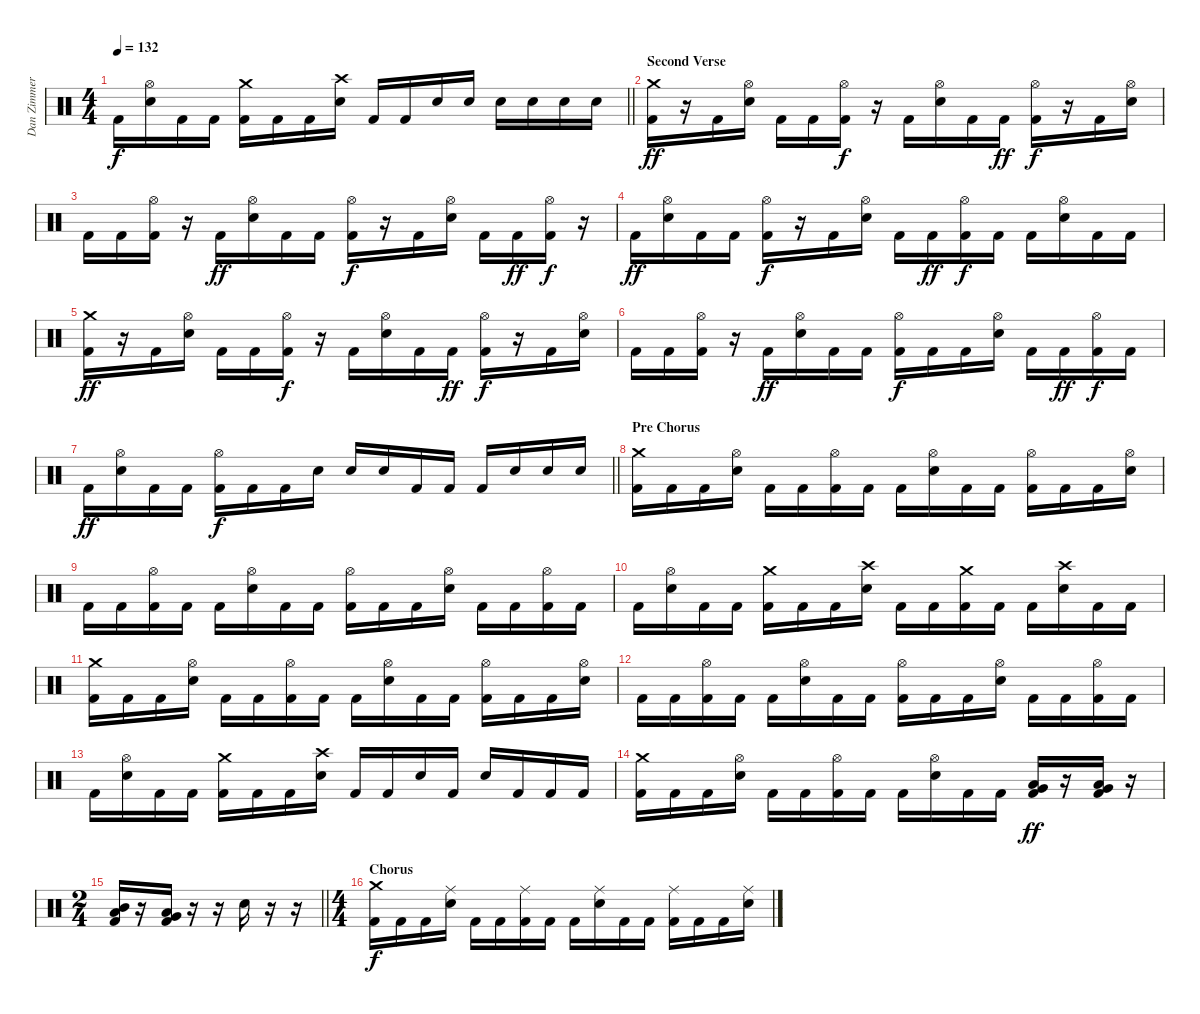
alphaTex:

\track ("Dan Zimmermann" "Dan Zimmer") {instrument percussion}
\staff {score}
\articulation defaults
\ts (4 4)
\tempo 132
\clef neutral
\barLineRight lightlight
\ks c "Kick (hit) 2".16{dy f}
("Hi-Hat (open)" "Electric Snare (hit)").16 "Kick (hit) 2".16 "Kick (hit) 2".16 ("Crash medium (hit)" "Kick (hit) 2").16 "Kick (hit) 2".16 "Kick (hit) 2".16 ("Crash high (hit)" "Electric Snare (hit)").16 "Kick (hit) 2".16 "Kick (hit) 2".16 "Electric Snare (hit)".16 "Electric Snare (hit)".16 "Electric Snare (hit)".16 "Electric Snare (hit)".16 "Electric Snare (hit)".16 "Electric Snare (hit)".16 |
\section ("" "Second Verse")
("Crash medium (hit)" "Kick (hit) 2").16{dy ff} r.16 "Kick (hit) 2".16 ("Hi-Hat (open)" "Electric Snare (hit)").16 "Kick (hit) 2".16 "Kick (hit) 2".16 ("Hi-Hat (open)" "Kick (hit) 2").16{dy f} r.16 "Kick (hit) 2".16 ("Hi-Hat (open)" "Electric Snare (hit)").16 "Kick (hit) 2".16 "Kick (hit) 2".16{dy ff} ("Hi-Hat (open)" "Kick (hit) 2").16{dy f} r.16 "Kick (hit) 2".16 ("Hi-Hat (open)" "Electric Snare (hit)").16 |
"Kick (hit) 2".16 "Kick (hit) 2".16 ("Hi-Hat (open)" "Kick (hit) 2").16 r.16 "Kick (hit) 2".16{dy ff} ("Hi-Hat (open)" "Electric Snare (hit)").16 "Kick (hit) 2".16 "Kick (hit) 2".16 ("Hi-Hat (open)" "Kick (hit) 2").16{dy f} r.16 "Kick (hit) 2".16 ("Hi-Hat (open)" "Electric Snare (hit)").16 "Kick (hit) 2".16 "Kick (hit) 2".16{dy ff} ("Hi-Hat (open)" "Kick (hit) 2").16{dy f} r.16 |
"Kick (hit) 2".16{dy ff} ("Hi-Hat (open)" "Electric Snare (hit)").16 "Kick (hit) 2".16 "Kick (hit) 2".16 ("Hi-Hat (open)" "Kick (hit) 2").16{dy f} r.16 "Kick (hit) 2".16 ("Hi-Hat (open)" "Electric Snare (hit)").16 "Kick (hit) 2".16 "Kick (hit) 2".16{dy ff} ("Hi-Hat (open)" "Kick (hit) 2").16{dy f} "Kick (hit) 2".16 "Kick (hit) 2".16 ("Hi-Hat (open)" "Electric Snare (hit)").16 "Kick (hit) 2".16 "Kick (hit) 2".16 |
("Crash medium (hit)" "Kick (hit) 2").16{dy ff} r.16 "Kick (hit) 2".16 ("Hi-Hat (open)" "Electric Snare (hit)").16 "Kick (hit) 2".16 "Kick (hit) 2".16 ("Hi-Hat (open)" "Kick (hit) 2").16{dy f} r.16 "Kick (hit) 2".16 ("Hi-Hat (open)" "Electric Snare (hit)").16 "Kick (hit) 2".16 "Kick (hit) 2".16{dy ff} ("Hi-Hat (open)" "Kick (hit) 2").16{dy f} r.16 "Kick (hit) 2".16 ("Hi-Hat (open)" "Electric Snare (hit)").16 |
"Kick (hit) 2".16 "Kick (hit) 2".16 ("Hi-Hat (open)" "Kick (hit) 2").16 r.16 "Kick (hit) 2".16{dy ff} ("Hi-Hat (open)" "Electric Snare (hit)").16 "Kick (hit) 2".16 "Kick (hit) 2".16 ("Hi-Hat (open)" "Kick (hit) 2").16{dy f} "Kick (hit) 2".16 "Kick (hit) 2".16 ("Hi-Hat (open)" "Electric Snare (hit)").16 "Kick (hit) 2".16 "Kick (hit) 2".16{dy ff} ("Hi-Hat (open)" "Kick (hit) 2").16{dy f} "Kick (hit) 2".16 |
\barLineRight lightlight "Kick (hit) 2".16{dy ff}
("Hi-Hat (open)" "Electric Snare (hit)").16 "Kick (hit) 2".16 "Kick (hit) 2".16 ("Hi-Hat (open)" "Kick (hit) 2").16{dy f} "Kick (hit) 2".16 "Kick (hit) 2".16 "Electric Snare (hit)".16 "Electric Snare (hit)".16 "Electric Snare (hit)".16 "Kick (hit) 2".16 "Kick (hit) 2".16 "Kick (hit) 2".16 "Electric Snare (hit)".16 "Electric Snare (hit)".16 "Electric Snare (hit)".16 |
\section ("" "Pre Chorus")
("Crash medium (hit)" "Kick (hit) 2").16 "Kick (hit) 2".16 "Kick (hit) 2".16 ("Hi-Hat (open)" "Electric Snare (hit)").16 "Kick (hit) 2".16 "Kick (hit) 2".16 ("Hi-Hat (open)" "Kick (hit) 2").16 "Kick (hit) 2".16 "Kick (hit) 2".16 ("Hi-Hat (open)" "Electric Snare (hit)").16 "Kick (hit) 2".16 "Kick (hit) 2".16 ("Hi-Hat (open)" "Kick (hit) 2").16 "Kick (hit) 2".16 "Kick (hit) 2".16 ("Hi-Hat (open)" "Electric Snare (hit)").16 |
"Kick (hit) 2".16 "Kick (hit) 2".16 ("Hi-Hat (open)" "Kick (hit) 2").16 "Kick (hit) 2".16 "Kick (hit) 2".16 ("Hi-Hat (open)" "Electric Snare (hit)").16 "Kick (hit) 2".16 "Kick (hit) 2".16 ("Hi-Hat (open)" "Kick (hit) 2").16 "Kick (hit) 2".16 "Kick (hit) 2".16 ("Hi-Hat (open)" "Electric Snare (hit)").16 "Kick (hit) 2".16 "Kick (hit) 2".16 ("Hi-Hat (open)" "Kick (hit) 2").16 "Kick (hit) 2".16 |
"Kick (hit) 2".16 ("Hi-Hat (open)" "Electric Snare (hit)").16 "Kick (hit) 2".16 "Kick (hit) 2".16 ("Crash medium (hit)" "Kick (hit) 2").16 "Kick (hit) 2".16 "Kick (hit) 2".16 ("Crash high (hit)" "Electric Snare (hit)").16 "Kick (hit) 2".16 "Kick (hit) 2".16 ("Crash medium (hit)" "Kick (hit) 2").16 "Kick (hit) 2".16 "Kick (hit) 2".16 ("Crash high (hit)" "Electric Snare (hit)").16 "Kick (hit) 2".16 "Kick (hit) 2".16 |
("Crash medium (hit)" "Kick (hit) 2").16 "Kick (hit) 2".16 "Kick (hit) 2".16 ("Hi-Hat (open)" "Electric Snare (hit)").16 "Kick (hit) 2".16 "Kick (hit) 2".16 ("Hi-Hat (open)" "Kick (hit) 2").16 "Kick (hit) 2".16 "Kick (hit) 2".16 ("Hi-Hat (open)" "Electric Snare (hit)").16 "Kick (hit) 2".16 "Kick (hit) 2".16 ("Hi-Hat (open)" "Kick (hit) 2").16 "Kick (hit) 2".16 "Kick (hit) 2".16 ("Hi-Hat (open)" "Electric Snare (hit)").16 |
"Kick (hit) 2".16 "Kick (hit) 2".16 ("Hi-Hat (open)" "Kick (hit) 2").16 "Kick (hit) 2".16 "Kick (hit) 2".16 ("Hi-Hat (open)" "Electric Snare (hit)").16 "Kick (hit) 2".16 "Kick (hit) 2".16 ("Hi-Hat (open)" "Kick (hit) 2").16 "Kick (hit) 2".16 "Kick (hit) 2".16 ("Hi-Hat (open)" "Electric Snare (hit)").16 "Kick (hit) 2".16 "Kick (hit) 2".16 ("Hi-Hat (open)" "Kick (hit) 2").16 "Kick (hit) 2".16 |
"Kick (hit) 2".16 ("Hi-Hat (open)" "Electric Snare (hit)").16 "Kick (hit) 2".16 "Kick (hit) 2".16 ("Crash medium (hit)" "Kick (hit) 2").16 "Kick (hit) 2".16 "Kick (hit) 2".16 ("Crash high (hit)" "Electric Snare (hit)").16 "Kick (hit) 2".16 "Kick (hit) 2".16 "Electric Snare (hit)".16 "Kick (hit) 2".16 "Electric Snare (hit)".16 "Kick (hit) 2".16 "Kick (hit) 2".16 "Kick (hit) 2".16 |
("Crash medium (hit)" "Kick (hit) 2").16 "Kick (hit) 2".16 "Kick (hit) 2".16 ("Hi-Hat (open)" "Electric Snare (hit)").16 "Kick (hit) 2".16 "Kick (hit) 2".16 ("Hi-Hat (open)" "Kick (hit) 2").16 "Kick (hit) 2".16 "Kick (hit) 2".16 ("Hi-Hat (open)" "Electric Snare (hit)").16 "Kick (hit) 2".16 "Kick (hit) 2".16 ("Low Floor Tom (hit)" "Very Low Tom (hit)" "Kick (hit) 2").16{dy ff} r.16 ("Low Tom (hit)" "Very Low Tom (hit)" "Kick (hit) 2").16 r.16 |
\ts (2 4)
\barLineRight lightlight
("Low Tom (hit)" "Mid Tom (hit)" "Kick (hit) 2").16 r.16 ("Low Floor Tom (hit)" "Very Low Tom (hit)" "Kick (hit) 2").16 r.16 r.16 "Electric Snare (hit)".16 r.16 r.16 |
\ts (4 4)
\section ("" "Chorus")
("Crash medium (hit)" "Kick (hit) 2").16{dy f} "Kick (hit) 2".16 "Kick (hit) 2".16 ("Ride (middle)" "Electric Snare (hit)").16 "Kick (hit) 2".16 "Kick (hit) 2".16 ("Ride (middle)" "Kick (hit) 2").16 "Kick (hit) 2".16 "Kick (hit) 2".16 ("Ride (middle)" "Electric Snare (hit)").16 "Kick (hit) 2".16 "Kick (hit) 2".16 ("Ride (middle)" "Kick (hit) 2").16 "Kick (hit) 2".16 "Kick (hit) 2".16 ("Ride (middle)" "Electric Snare (hit)").16
